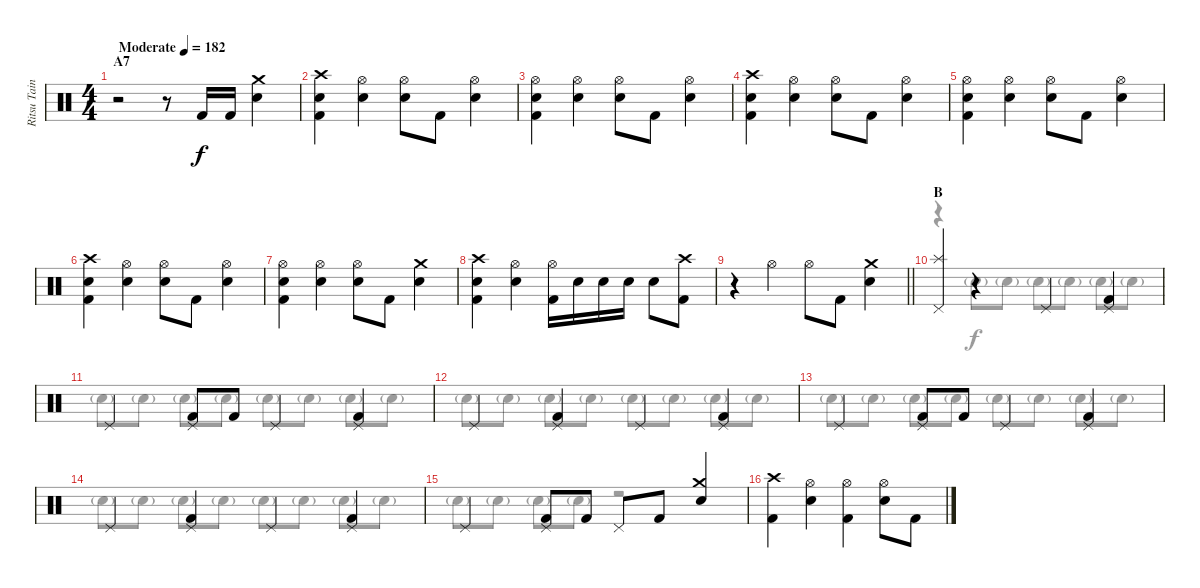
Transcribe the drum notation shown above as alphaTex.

\track ("Ritsu Tainaka" "Ritsu Tain") {instrument percussion}
\staff {score}
\articulation defaults
\voice
\ts (4 4)
\section ("" "A7")
\tempo (182 "Moderate")
\clef neutral
\ks c
r.2{dy f} r.8 "Kick (hit) 2".16 "Kick (hit) 2".16 ("Crash medium (hit)" "Electric Snare (hit)").4 |
("Crash high (hit)" "Electric Snare (hit)" "Kick (hit) 2").4 ("Hi-Hat (open)" "Electric Snare (hit)").4 ("Hi-Hat (open)" "Electric Snare (hit)").8 "Kick (hit) 2".8 ("Hi-Hat (open)" "Electric Snare (hit)").4 |
("Hi-Hat (open)" "Electric Snare (hit)" "Kick (hit) 2").4 ("Hi-Hat (open)" "Electric Snare (hit)").4 ("Hi-Hat (open)" "Electric Snare (hit)").8 "Kick (hit) 2".8 ("Hi-Hat (open)" "Electric Snare (hit)").4 |
("Crash high (hit)" "Electric Snare (hit)" "Kick (hit) 2").4 ("Hi-Hat (open)" "Electric Snare (hit)").4 ("Hi-Hat (open)" "Electric Snare (hit)").8 "Kick (hit) 2".8 ("Hi-Hat (open)" "Electric Snare (hit)").4 |
("Hi-Hat (open)" "Electric Snare (hit)" "Kick (hit) 2").4 ("Hi-Hat (open)" "Electric Snare (hit)").4 ("Hi-Hat (open)" "Electric Snare (hit)").8 "Kick (hit) 2".8 ("Hi-Hat (open)" "Electric Snare (hit)").4 |
("Crash high (hit)" "Electric Snare (hit)" "Kick (hit) 2").4 ("Hi-Hat (open)" "Electric Snare (hit)").4 ("Hi-Hat (open)" "Electric Snare (hit)").8 "Kick (hit) 2".8 ("Hi-Hat (open)" "Electric Snare (hit)").4 |
("Hi-Hat (open)" "Electric Snare (hit)" "Kick (hit) 2").4 ("Hi-Hat (open)" "Electric Snare (hit)").4 ("Hi-Hat (open)" "Electric Snare (hit)").8 "Kick (hit) 2".8 ("Crash medium (hit)" "Electric Snare (hit)").4 |
("Crash high (hit)" "Electric Snare (hit)" "Kick (hit) 2").4 ("Hi-Hat (open)" "Electric Snare (hit)").4 ("Hi-Hat (open)" "Kick (hit) 2").16 "Electric Snare (hit)".16 "Electric Snare (hit)".16 "Electric Snare (hit)".16 "Electric Snare (hit)".8 ("Crash high (hit)" "Kick (hit) 2").8 |
\barLineRight lightlight
r.4 "Hi-Hat (open)".4 "Hi-Hat (open)".8 "Kick (hit) 2".8 ("Crash medium (hit)" "Electric Snare (hit)").4 |
\section ("" "B")
("Splash (hit)" "Pedal Hi-Hat (hit)").4 r.4 "Pedal Hi-Hat (hit)".4 ("Pedal Hi-Hat (hit)" "Kick (hit) 2").4 |
"Pedal Hi-Hat (hit)".4 ("Pedal Hi-Hat (hit)" "Kick (hit) 2").8 "Kick (hit) 2".8 "Pedal Hi-Hat (hit)".4 ("Pedal Hi-Hat (hit)" "Kick (hit) 2").4 |
"Pedal Hi-Hat (hit)".4 ("Pedal Hi-Hat (hit)" "Kick (hit) 2").4 "Pedal Hi-Hat (hit)".4 ("Pedal Hi-Hat (hit)" "Kick (hit) 2").4 |
"Pedal Hi-Hat (hit)".4 ("Pedal Hi-Hat (hit)" "Kick (hit) 2").8 "Kick (hit) 2".8 "Pedal Hi-Hat (hit)".4 ("Pedal Hi-Hat (hit)" "Kick (hit) 2").4 |
"Pedal Hi-Hat (hit)".4 ("Pedal Hi-Hat (hit)" "Kick (hit) 2").4 "Pedal Hi-Hat (hit)".4 ("Pedal Hi-Hat (hit)" "Kick (hit) 2").4 |
"Pedal Hi-Hat (hit)".4 ("Pedal Hi-Hat (hit)" "Kick (hit) 2").8 "Kick (hit) 2".8 "Pedal Hi-Hat (hit)".8 "Kick (hit) 2".8 ("Crash medium (hit)" "Electric Snare (hit)").4 |
("Crash high (hit)" "Kick (hit) 2").4 ("Hi-Hat (open)" "Electric Snare (hit)").4 ("Hi-Hat (open)" "Kick (hit) 2").4 ("Hi-Hat (open)" "Electric Snare (hit)").8 "Kick (hit) 2".8
\voice
\clef neutral
\ottava regular
\simile none
\ks c
|
|
|
|
|
|
|
|
\barLineRight lightlight
|
r.4 "Electric Snare (hit)"{g}.8 "Electric Snare (hit)"{g}.8 "Electric Snare (hit)"{g}.8 "Electric Snare (hit)"{g}.8 "Electric Snare (hit)"{g}.8 "Electric Snare (hit)"{g}.8 |
"Electric Snare (hit)"{g}.8 "Electric Snare (hit)"{g}.8 "Electric Snare (hit)"{g}.8 "Electric Snare (hit)"{g}.8 "Electric Snare (hit)"{g}.8 "Electric Snare (hit)"{g}.8 "Electric Snare (hit)"{g}.8 "Electric Snare (hit)"{g}.8 |
"Electric Snare (hit)"{g}.8 "Electric Snare (hit)"{g}.8 "Electric Snare (hit)"{g}.8 "Electric Snare (hit)"{g}.8 "Electric Snare (hit)"{g}.8 "Electric Snare (hit)"{g}.8 "Electric Snare (hit)"{g}.8 "Electric Snare (hit)"{g}.8 |
"Electric Snare (hit)"{g}.8 "Electric Snare (hit)"{g}.8 "Electric Snare (hit)"{g}.8 "Electric Snare (hit)"{g}.8 "Electric Snare (hit)"{g}.8 "Electric Snare (hit)"{g}.8 "Electric Snare (hit)"{g}.8 "Electric Snare (hit)"{g}.8 |
"Electric Snare (hit)"{g}.8 "Electric Snare (hit)"{g}.8 "Electric Snare (hit)"{g}.8 "Electric Snare (hit)"{g}.8 "Electric Snare (hit)"{g}.8 "Electric Snare (hit)"{g}.8 "Electric Snare (hit)"{g}.8 "Electric Snare (hit)"{g}.8 |
"Electric Snare (hit)"{g}.8 "Electric Snare (hit)"{g}.8 "Electric Snare (hit)"{g}.8 "Electric Snare (hit)"{g}.8 r.2 |
